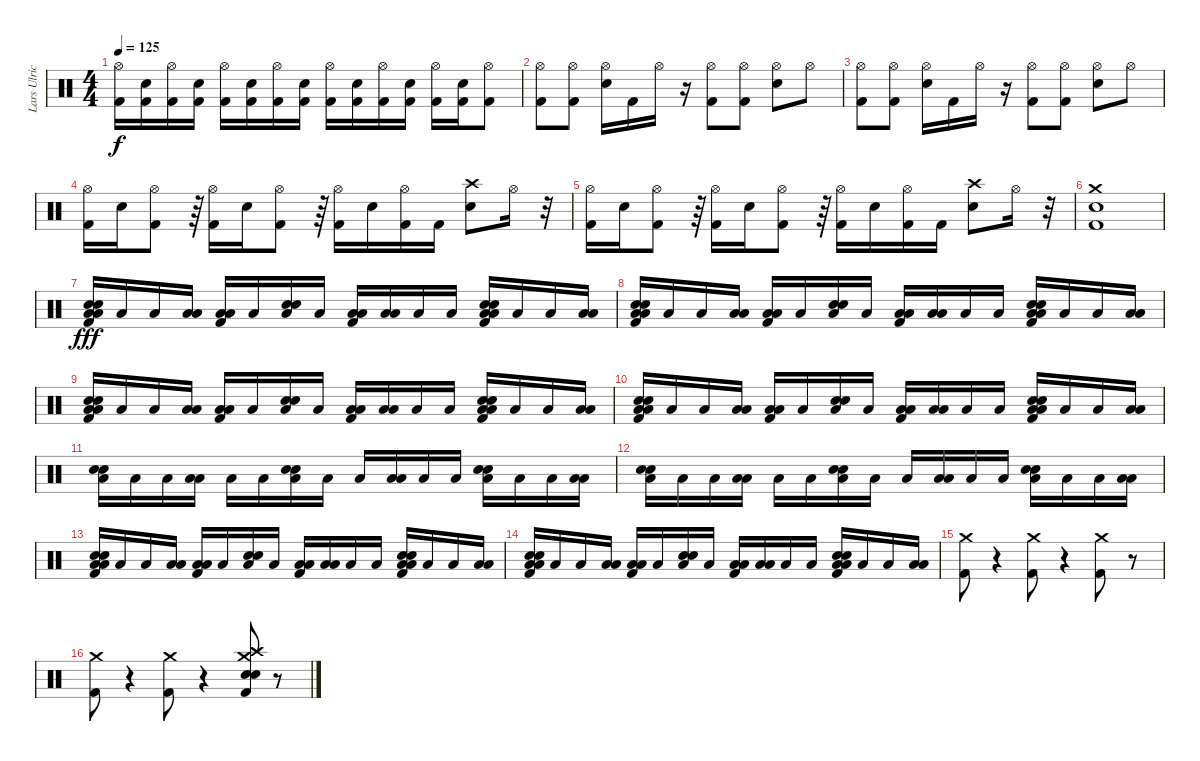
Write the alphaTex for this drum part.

\track ("Lars Ulrich" "Lars Ulric") {instrument percussion}
\staff {score}
\articulation defaults
\ts (4 4)
\tempo 125
\clef neutral
\ks c
("Hi-Hat (open)" "Kick (hit) 2").16{dy f} ("Electric Snare (hit)" "Kick (hit) 2").16 ("Hi-Hat (open)" "Kick (hit) 2").16 ("Electric Snare (hit)" "Kick (hit) 2").16 ("Hi-Hat (open)" "Kick (hit) 2").16 ("Electric Snare (hit)" "Kick (hit) 2").16 ("Hi-Hat (open)" "Kick (hit) 2").16 ("Electric Snare (hit)" "Kick (hit) 2").16 ("Hi-Hat (open)" "Kick (hit) 2").16 ("Electric Snare (hit)" "Kick (hit) 2").16 ("Hi-Hat (open)" "Kick (hit) 2").16 ("Electric Snare (hit)" "Kick (hit) 2").16 ("Hi-Hat (open)" "Kick (hit) 2").16 ("Electric Snare (hit)" "Kick (hit) 2").16 ("Hi-Hat (open)" "Kick (hit) 2").8 |
("Hi-Hat (open)" "Kick (hit) 2").8 ("Hi-Hat (open)" "Kick (hit) 2").8 ("Hi-Hat (open)" "Electric Snare (hit)").16 "Kick (hit) 2".16 "Hi-Hat (open)".16 r.16 ("Hi-Hat (open)" "Kick (hit) 2").8 ("Hi-Hat (open)" "Kick (hit) 2").8 ("Hi-Hat (open)" "Electric Snare (hit)").8 "Hi-Hat (open)".8 |
("Hi-Hat (open)" "Kick (hit) 2").8 ("Hi-Hat (open)" "Kick (hit) 2").8 ("Hi-Hat (open)" "Electric Snare (hit)").16 "Kick (hit) 2".16 "Hi-Hat (open)".16 r.16 ("Hi-Hat (open)" "Kick (hit) 2").8 ("Hi-Hat (open)" "Kick (hit) 2").8 ("Hi-Hat (open)" "Electric Snare (hit)").8 "Hi-Hat (open)".8 |
("Hi-Hat (open)" "Kick (hit) 2").16 "Electric Snare (hit)".16 ("Hi-Hat (open)" "Kick (hit) 2").8 r.64 ("Hi-Hat (open)" "Kick (hit) 2").16 "Electric Snare (hit)".16 ("Hi-Hat (open)" "Kick (hit) 2").8 r.64 ("Hi-Hat (open)" "Kick (hit) 2").16 "Electric Snare (hit)".16 ("Hi-Hat (open)" "Kick (hit) 2").16 "Kick (hit) 2".16 ("Crash high (hit)" "Electric Snare (hit)").8 "Hi-Hat (open)".16 r.32 |
("Hi-Hat (open)" "Kick (hit) 2").16 "Electric Snare (hit)".16 ("Hi-Hat (open)" "Kick (hit) 2").8 r.64 ("Hi-Hat (open)" "Kick (hit) 2").16 "Electric Snare (hit)".16 ("Hi-Hat (open)" "Kick (hit) 2").8 r.64 ("Hi-Hat (open)" "Kick (hit) 2").16 "Electric Snare (hit)".16 ("Hi-Hat (open)" "Kick (hit) 2").16 "Kick (hit) 2".16 ("Crash high (hit)" "Electric Snare (hit)").8 "Hi-Hat (open)".16 r.32 |
("Crash medium (hit)" "Electric Snare (hit)" "Kick (hit) 2").1 |
("Electric Snare (hit)" "Snare (hit) 2" "Low Tom (hit)" "Low Floor Tom (hit)" "Kick (hit) 2").16{dy fff} "Low Tom (hit)".16 "Low Floor Tom (hit)".16 ("Low Floor Tom (hit)" "Low Tom (hit)").16 ("Low Tom (hit)" "Low Floor Tom (hit)" "Kick (hit) 2").16 "Low Tom (hit)".16 ("Electric Snare (hit)" "Snare (hit) 2" "Low Floor Tom (hit)").16 "Low Tom (hit)".16 ("Low Tom (hit)" "Low Floor Tom (hit)" "Kick (hit) 2").16 ("Low Floor Tom (hit)" "Low Tom (hit)").16 "Low Floor Tom (hit)".16 "Low Tom (hit)".16 ("Electric Snare (hit)" "Snare (hit) 2" "Low Tom (hit)" "Low Floor Tom (hit)" "Kick (hit) 2").16 "Low Tom (hit)".16 "Low Floor Tom (hit)".16 ("Low Floor Tom (hit)" "Low Tom (hit)").16 |
("Electric Snare (hit)" "Snare (hit) 2" "Low Tom (hit)" "Low Floor Tom (hit)" "Kick (hit) 2").16 "Low Tom (hit)".16 "Low Floor Tom (hit)".16 ("Low Floor Tom (hit)" "Low Tom (hit)").16 ("Low Tom (hit)" "Low Floor Tom (hit)" "Kick (hit) 2").16 "Low Tom (hit)".16 ("Electric Snare (hit)" "Snare (hit) 2" "Low Floor Tom (hit)").16 "Low Tom (hit)".16 ("Low Tom (hit)" "Low Floor Tom (hit)" "Kick (hit) 2").16 ("Low Floor Tom (hit)" "Low Tom (hit)").16 "Low Floor Tom (hit)".16 "Low Tom (hit)".16 ("Electric Snare (hit)" "Snare (hit) 2" "Low Tom (hit)" "Low Floor Tom (hit)" "Kick (hit) 2").16 "Low Tom (hit)".16 "Low Floor Tom (hit)".16 ("Low Floor Tom (hit)" "Low Tom (hit)").16 |
("Electric Snare (hit)" "Snare (hit) 2" "Low Tom (hit)" "Low Floor Tom (hit)" "Kick (hit) 2").16 "Low Tom (hit)".16 "Low Floor Tom (hit)".16 ("Low Floor Tom (hit)" "Low Tom (hit)").16 ("Low Tom (hit)" "Low Floor Tom (hit)" "Kick (hit) 2").16 "Low Tom (hit)".16 ("Electric Snare (hit)" "Snare (hit) 2" "Low Floor Tom (hit)").16 "Low Tom (hit)".16 ("Low Tom (hit)" "Low Floor Tom (hit)" "Kick (hit) 2").16 ("Low Floor Tom (hit)" "Low Tom (hit)").16 "Low Floor Tom (hit)".16 "Low Tom (hit)".16 ("Electric Snare (hit)" "Snare (hit) 2" "Low Tom (hit)" "Low Floor Tom (hit)" "Kick (hit) 2").16 "Low Tom (hit)".16 "Low Floor Tom (hit)".16 ("Low Floor Tom (hit)" "Low Tom (hit)").16 |
("Electric Snare (hit)" "Snare (hit) 2" "Low Tom (hit)" "Low Floor Tom (hit)" "Kick (hit) 2").16 "Low Tom (hit)".16 "Low Floor Tom (hit)".16 ("Low Floor Tom (hit)" "Low Tom (hit)").16 ("Low Tom (hit)" "Low Floor Tom (hit)" "Kick (hit) 2").16 "Low Tom (hit)".16 ("Electric Snare (hit)" "Snare (hit) 2" "Low Floor Tom (hit)").16 "Low Tom (hit)".16 ("Low Tom (hit)" "Low Floor Tom (hit)" "Kick (hit) 2").16 ("Low Floor Tom (hit)" "Low Tom (hit)").16 "Low Floor Tom (hit)".16 "Low Tom (hit)".16 ("Electric Snare (hit)" "Snare (hit) 2" "Low Tom (hit)" "Low Floor Tom (hit)" "Kick (hit) 2").16 "Low Tom (hit)".16 "Low Floor Tom (hit)".16 ("Low Floor Tom (hit)" "Low Tom (hit)").16 |
("Snare (hit) 2" "Electric Snare (hit)" "Low Floor Tom (hit)").16 "Low Tom (hit)".16 "Low Floor Tom (hit)".16 ("Low Floor Tom (hit)" "Low Tom (hit)").16 "Low Floor Tom (hit)".16 "Low Tom (hit)".16 ("Snare (hit) 2" "Electric Snare (hit)" "Low Floor Tom (hit)").16 "Low Tom (hit)".16 "Low Floor Tom (hit)".16 ("Low Floor Tom (hit)" "Low Tom (hit)").16 "Low Floor Tom (hit)".16 "Low Tom (hit)".16 ("Snare (hit) 2" "Electric Snare (hit)" "Low Floor Tom (hit)").16 "Low Tom (hit)".16 "Low Floor Tom (hit)".16 ("Low Floor Tom (hit)" "Low Tom (hit)").16 |
("Snare (hit) 2" "Electric Snare (hit)" "Low Floor Tom (hit)").16 "Low Tom (hit)".16 "Low Floor Tom (hit)".16 ("Low Floor Tom (hit)" "Low Tom (hit)").16 "Low Floor Tom (hit)".16 "Low Tom (hit)".16 ("Snare (hit) 2" "Electric Snare (hit)" "Low Floor Tom (hit)").16 "Low Tom (hit)".16 "Low Floor Tom (hit)".16 ("Low Floor Tom (hit)" "Low Tom (hit)").16 "Low Floor Tom (hit)".16 "Low Tom (hit)".16 ("Snare (hit) 2" "Electric Snare (hit)" "Low Floor Tom (hit)").16 "Low Tom (hit)".16 "Low Floor Tom (hit)".16 ("Low Floor Tom (hit)" "Low Tom (hit)").16 |
("Electric Snare (hit)" "Snare (hit) 2" "Low Tom (hit)" "Low Floor Tom (hit)" "Kick (hit) 2").16 "Low Tom (hit)".16 "Low Floor Tom (hit)".16 ("Low Floor Tom (hit)" "Low Tom (hit)").16 ("Low Tom (hit)" "Low Floor Tom (hit)" "Kick (hit) 2").16 "Low Tom (hit)".16 ("Electric Snare (hit)" "Snare (hit) 2" "Low Floor Tom (hit)").16 "Low Tom (hit)".16 ("Low Tom (hit)" "Low Floor Tom (hit)" "Kick (hit) 2").16 ("Low Floor Tom (hit)" "Low Tom (hit)").16 "Low Floor Tom (hit)".16 "Low Tom (hit)".16 ("Electric Snare (hit)" "Snare (hit) 2" "Low Tom (hit)" "Low Floor Tom (hit)" "Kick (hit) 2").16 "Low Tom (hit)".16 "Low Floor Tom (hit)".16 ("Low Floor Tom (hit)" "Low Tom (hit)").16 |
("Electric Snare (hit)" "Snare (hit) 2" "Low Tom (hit)" "Low Floor Tom (hit)" "Kick (hit) 2").16 "Low Tom (hit)".16 "Low Floor Tom (hit)".16 ("Low Floor Tom (hit)" "Low Tom (hit)").16 ("Low Tom (hit)" "Low Floor Tom (hit)" "Kick (hit) 2").16 "Low Tom (hit)".16 ("Electric Snare (hit)" "Snare (hit) 2" "Low Floor Tom (hit)").16 "Low Tom (hit)".16 ("Low Tom (hit)" "Low Floor Tom (hit)" "Kick (hit) 2").16 ("Low Floor Tom (hit)" "Low Tom (hit)").16 "Low Floor Tom (hit)".16 "Low Tom (hit)".16 ("Electric Snare (hit)" "Snare (hit) 2" "Low Tom (hit)" "Low Floor Tom (hit)" "Kick (hit) 2").16 "Low Tom (hit)".16 "Low Floor Tom (hit)".16 ("Low Floor Tom (hit)" "Low Tom (hit)").16 |
("Crash medium (hit)" "Kick (hit) 2").8 r.4 ("Crash medium (hit)" "Kick (hit) 2").8 r.4 ("Crash medium (hit)" "Kick (hit) 2").8 r.8 |
("Crash medium (hit)" "Kick (hit) 2").8 r.4 ("Crash medium (hit)" "Kick (hit) 2").8 r.4 ("Crash high (hit)" "Crash medium (hit)" "Electric Snare (hit)" "Snare (hit) 2" "Kick (hit) 2").8 r.8
